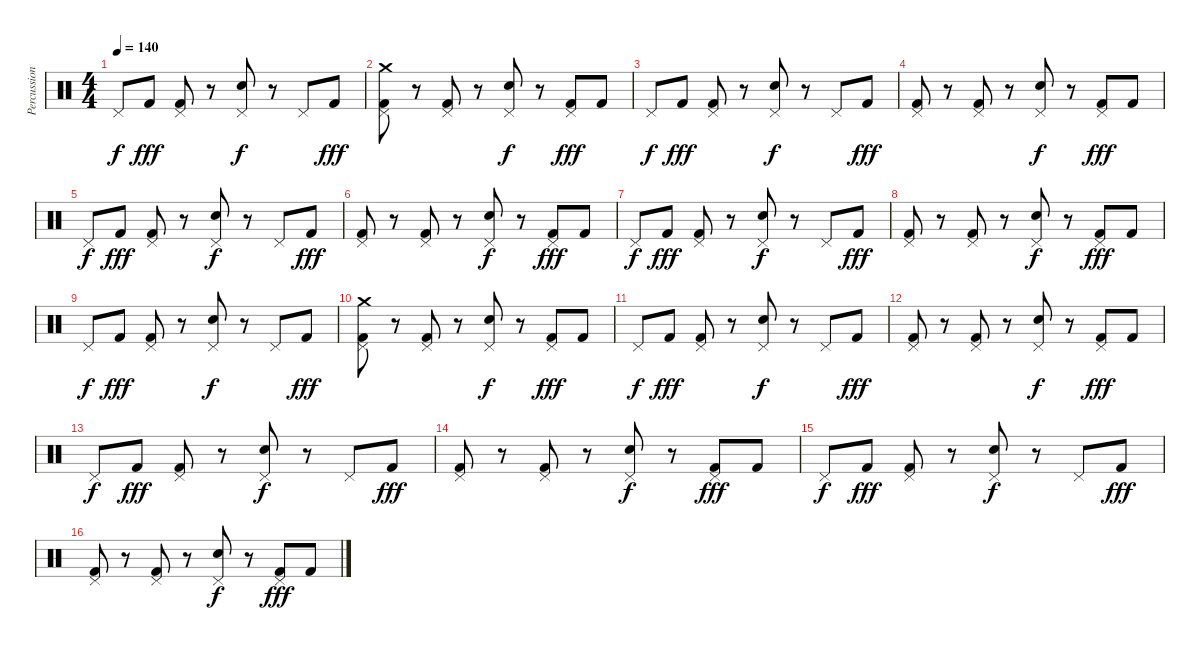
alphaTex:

\track ("Percussion" "Percussion") {instrument percussion}
\staff {score}
\articulation defaults
\ts (4 4)
\tempo 140
\clef neutral
\ks c "Pedal Hi-Hat (hit)".8{dy f} "Kick (hit) 2".8{dy fff}
("Pedal Hi-Hat (hit)" "Kick (hit) 2").8 r.8 ("Pedal Hi-Hat (hit)" "Electric Snare (hit)").8{dy f} r.8 "Pedal Hi-Hat (hit)".8 "Kick (hit) 2".8{dy fff} |
("Pedal Hi-Hat (hit)" "Crash medium (hit)" "Kick (hit) 2").8 r.8 ("Pedal Hi-Hat (hit)" "Kick (hit) 2").8 r.8 ("Pedal Hi-Hat (hit)" "Electric Snare (hit)").8{dy f} r.8 ("Pedal Hi-Hat (hit)" "Kick (hit) 2").8{dy fff} "Kick (hit) 2".8 |
"Pedal Hi-Hat (hit)".8{dy f} "Kick (hit) 2".8{dy fff} ("Pedal Hi-Hat (hit)" "Kick (hit) 2").8 r.8 ("Pedal Hi-Hat (hit)" "Electric Snare (hit)").8{dy f} r.8 "Pedal Hi-Hat (hit)".8 "Kick (hit) 2".8{dy fff} |
("Pedal Hi-Hat (hit)" "Kick (hit) 2").8 r.8 ("Pedal Hi-Hat (hit)" "Kick (hit) 2").8 r.8 ("Pedal Hi-Hat (hit)" "Electric Snare (hit)").8{dy f} r.8 ("Pedal Hi-Hat (hit)" "Kick (hit) 2").8{dy fff} "Kick (hit) 2".8 |
"Pedal Hi-Hat (hit)".8{dy f} "Kick (hit) 2".8{dy fff} ("Pedal Hi-Hat (hit)" "Kick (hit) 2").8 r.8 ("Pedal Hi-Hat (hit)" "Electric Snare (hit)").8{dy f} r.8 "Pedal Hi-Hat (hit)".8 "Kick (hit) 2".8{dy fff} |
("Pedal Hi-Hat (hit)" "Kick (hit) 2").8 r.8 ("Pedal Hi-Hat (hit)" "Kick (hit) 2").8 r.8 ("Pedal Hi-Hat (hit)" "Electric Snare (hit)").8{dy f} r.8 ("Pedal Hi-Hat (hit)" "Kick (hit) 2").8{dy fff} "Kick (hit) 2".8 |
"Pedal Hi-Hat (hit)".8{dy f} "Kick (hit) 2".8{dy fff} ("Pedal Hi-Hat (hit)" "Kick (hit) 2").8 r.8 ("Pedal Hi-Hat (hit)" "Electric Snare (hit)").8{dy f} r.8 "Pedal Hi-Hat (hit)".8 "Kick (hit) 2".8{dy fff} |
("Pedal Hi-Hat (hit)" "Kick (hit) 2").8 r.8 ("Pedal Hi-Hat (hit)" "Kick (hit) 2").8 r.8 ("Pedal Hi-Hat (hit)" "Electric Snare (hit)").8{dy f} r.8 ("Pedal Hi-Hat (hit)" "Kick (hit) 2").8{dy fff} "Kick (hit) 2".8 |
"Pedal Hi-Hat (hit)".8{dy f} "Kick (hit) 2".8{dy fff} ("Pedal Hi-Hat (hit)" "Kick (hit) 2").8 r.8 ("Pedal Hi-Hat (hit)" "Electric Snare (hit)").8{dy f} r.8 "Pedal Hi-Hat (hit)".8 "Kick (hit) 2".8{dy fff} |
("Pedal Hi-Hat (hit)" "Crash medium (hit)" "Kick (hit) 2").8 r.8 ("Pedal Hi-Hat (hit)" "Kick (hit) 2").8 r.8 ("Pedal Hi-Hat (hit)" "Electric Snare (hit)").8{dy f} r.8 ("Pedal Hi-Hat (hit)" "Kick (hit) 2").8{dy fff} "Kick (hit) 2".8 |
"Pedal Hi-Hat (hit)".8{dy f} "Kick (hit) 2".8{dy fff} ("Pedal Hi-Hat (hit)" "Kick (hit) 2").8 r.8 ("Pedal Hi-Hat (hit)" "Electric Snare (hit)").8{dy f} r.8 "Pedal Hi-Hat (hit)".8 "Kick (hit) 2".8{dy fff} |
("Pedal Hi-Hat (hit)" "Kick (hit) 2").8 r.8 ("Pedal Hi-Hat (hit)" "Kick (hit) 2").8 r.8 ("Pedal Hi-Hat (hit)" "Electric Snare (hit)").8{dy f} r.8 ("Pedal Hi-Hat (hit)" "Kick (hit) 2").8{dy fff} "Kick (hit) 2".8 |
"Pedal Hi-Hat (hit)".8{dy f} "Kick (hit) 2".8{dy fff} ("Pedal Hi-Hat (hit)" "Kick (hit) 2").8 r.8 ("Pedal Hi-Hat (hit)" "Electric Snare (hit)").8{dy f} r.8 "Pedal Hi-Hat (hit)".8 "Kick (hit) 2".8{dy fff} |
("Pedal Hi-Hat (hit)" "Kick (hit) 2").8 r.8 ("Pedal Hi-Hat (hit)" "Kick (hit) 2").8 r.8 ("Pedal Hi-Hat (hit)" "Electric Snare (hit)").8{dy f} r.8 ("Pedal Hi-Hat (hit)" "Kick (hit) 2").8{dy fff} "Kick (hit) 2".8 |
"Pedal Hi-Hat (hit)".8{dy f} "Kick (hit) 2".8{dy fff} ("Pedal Hi-Hat (hit)" "Kick (hit) 2").8 r.8 ("Pedal Hi-Hat (hit)" "Electric Snare (hit)").8{dy f} r.8 "Pedal Hi-Hat (hit)".8 "Kick (hit) 2".8{dy fff} |
("Pedal Hi-Hat (hit)" "Kick (hit) 2").8 r.8 ("Pedal Hi-Hat (hit)" "Kick (hit) 2").8 r.8 ("Pedal Hi-Hat (hit)" "Electric Snare (hit)").8{dy f} r.8 ("Pedal Hi-Hat (hit)" "Kick (hit) 2").8{dy fff} "Kick (hit) 2".8
